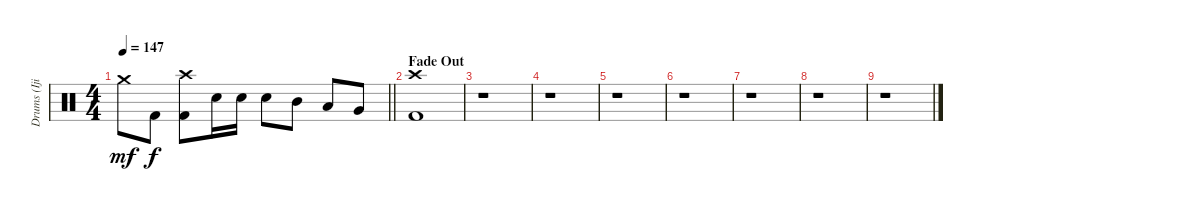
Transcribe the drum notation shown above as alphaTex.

\track ("Drums (Ijichi)" "Drums (Iji") {instrument percussion}
\staff {score}
\articulation defaults
\ts (4 4)
\tempo 147
\clef neutral
\barLineRight lightlight
\ks c "Crash medium (hit)".8{dy mf} "Kick (hit) 2".8{dy f}
("Crash high (hit)" "Kick (hit) 2").8 "Snare (hit) 2".16 "Snare (hit) 2".16 "Snare (hit) 2".8 "Mid Tom (hit)".8 "Low Tom (hit)".8 "Very Low Tom (hit)".8 |
\section ("" "Fade Out")
("Crash high (hit)" "Kick (hit) 2").1 |
r.1 |
r.1 |
r.1 |
r.1 |
r.1 |
r.1 |
r.1
